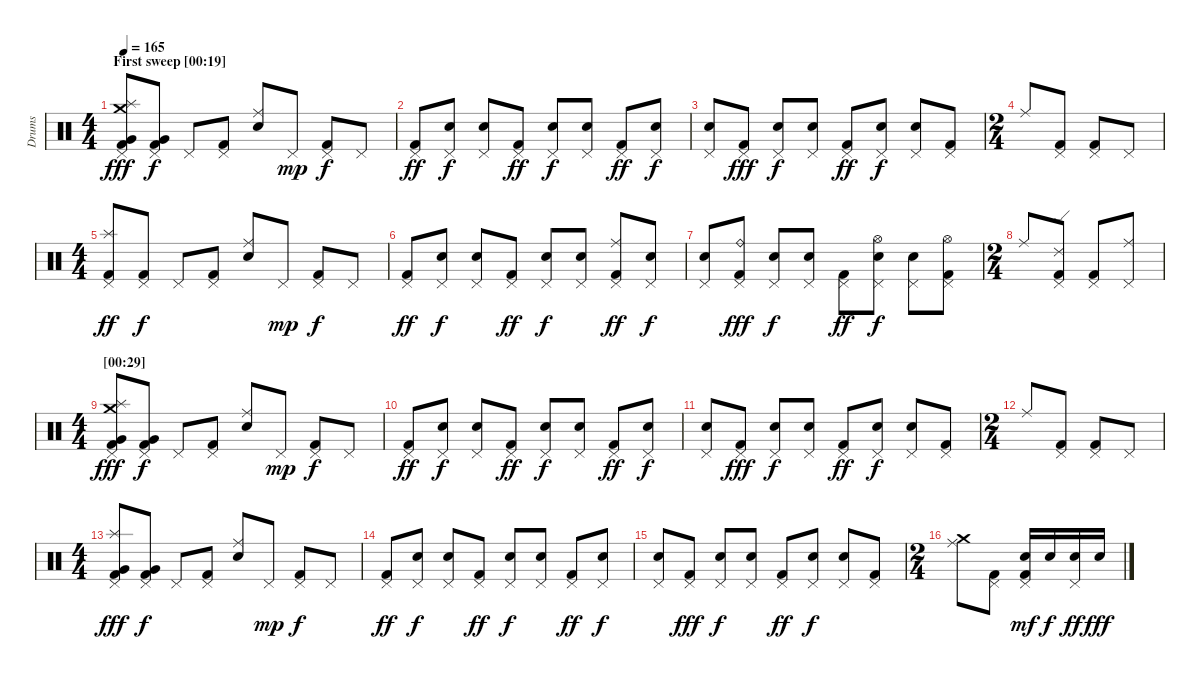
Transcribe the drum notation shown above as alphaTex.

\track ("Drums" "Drums") {instrument percussion}
\staff {score}
\articulation defaults
\ts (4 4)
\section ("" "First sweep [00:19]")
\tempo 165
\clef neutral
\ks c
("Pedal Hi-Hat (hit)" "Splash (hit)" "Crash medium (hit)" "Very Low Tom (hit)" "Kick (hit) 2").8{dy fff} ("Pedal Hi-Hat (hit)" "Very Low Tom (hit)" "Kick (hit) 2").8{dy f} "Pedal Hi-Hat (hit)".8 ("Pedal Hi-Hat (hit)" "Kick (hit) 2").8 ("Ride (middle)" "Electric Snare (hit)").8 "Pedal Hi-Hat (hit)".8{dy mp} ("Pedal Hi-Hat (hit)" "Kick (hit) 2").8{dy f} "Pedal Hi-Hat (hit)".8 |
("Pedal Hi-Hat (hit)" "Kick (hit) 2").8{dy ff} ("Pedal Hi-Hat (hit)" "Electric Snare (hit)").8{dy f} ("Pedal Hi-Hat (hit)" "Electric Snare (hit)").8 ("Pedal Hi-Hat (hit)" "Kick (hit) 2").8{dy ff} ("Pedal Hi-Hat (hit)" "Electric Snare (hit)").8{dy f} ("Pedal Hi-Hat (hit)" "Electric Snare (hit)").8 ("Pedal Hi-Hat (hit)" "Kick (hit) 2").8{dy ff} ("Pedal Hi-Hat (hit)" "Electric Snare (hit)").8{dy f} |
("Pedal Hi-Hat (hit)" "Electric Snare (hit)").8 ("Pedal Hi-Hat (hit)" "Kick (hit) 2").8{dy fff} ("Pedal Hi-Hat (hit)" "Electric Snare (hit)").8{dy f} ("Pedal Hi-Hat (hit)" "Electric Snare (hit)").8 ("Pedal Hi-Hat (hit)" "Kick (hit) 2").8{dy ff} ("Pedal Hi-Hat (hit)" "Electric Snare (hit)").8{dy f} ("Pedal Hi-Hat (hit)" "Electric Snare (hit)").8 ("Pedal Hi-Hat (hit)" "Kick (hit) 2").8 |
\ts (2 4)
"Ride (middle)".8 ("Pedal Hi-Hat (hit)" "Kick (hit) 2").8 ("Pedal Hi-Hat (hit)" "Kick (hit) 2").8 "Pedal Hi-Hat (hit)".8 |
\ts (4 4)
("Pedal Hi-Hat (hit)" "Splash (hit)" "Kick (hit) 2").8{dy ff} ("Pedal Hi-Hat (hit)" "Kick (hit) 2").8{dy f} "Pedal Hi-Hat (hit)".8 ("Pedal Hi-Hat (hit)" "Kick (hit) 2").8 ("Ride (middle)" "Electric Snare (hit)").8 "Pedal Hi-Hat (hit)".8{dy mp} ("Pedal Hi-Hat (hit)" "Kick (hit) 2").8{dy f} "Pedal Hi-Hat (hit)".8 |
("Pedal Hi-Hat (hit)" "Kick (hit) 2").8{dy ff} ("Pedal Hi-Hat (hit)" "Electric Snare (hit)").8{dy f} ("Pedal Hi-Hat (hit)" "Electric Snare (hit)").8 ("Pedal Hi-Hat (hit)" "Kick (hit) 2").8{dy ff} ("Pedal Hi-Hat (hit)" "Electric Snare (hit)").8{dy f} ("Pedal Hi-Hat (hit)" "Electric Snare (hit)").8 ("Pedal Hi-Hat (hit)" "Ride (middle)" "Kick (hit) 2").8{dy ff} ("Pedal Hi-Hat (hit)" "Electric Snare (hit)").8{dy f} |
("Pedal Hi-Hat (hit)" "Electric Snare (hit)").8 ("Pedal Hi-Hat (hit)" "Ride (bell)" "Kick (hit) 2").8{dy fff} ("Pedal Hi-Hat (hit)" "Electric Snare (hit)").8{dy f} ("Pedal Hi-Hat (hit)" "Electric Snare (hit)").8 ("Pedal Hi-Hat (hit)" "Kick (hit) 2").8{dy ff} ("Pedal Hi-Hat (hit)" "Hi-Hat (open)" "Electric Snare (hit)").8{dy f} ("Pedal Hi-Hat (hit)" "Electric Snare (hit)").8 ("Pedal Hi-Hat (hit)" "Hi-Hat (open)" "Kick (hit) 2").8 |
\ts (2 4)
"Ride (middle)".8 ("Pedal Hi-Hat (hit)" "Ride (edge) 2" "Kick (hit) 2").8 ("Pedal Hi-Hat (hit)" "Kick (hit) 2").8 ("Pedal Hi-Hat (hit)" "Ride (middle)").8 |
\ts (4 4)
\section ("" "[00:29]")
("Pedal Hi-Hat (hit)" "Splash (hit)" "Crash medium (hit)" "Very Low Tom (hit)" "Kick (hit) 2").8{dy fff} ("Pedal Hi-Hat (hit)" "Very Low Tom (hit)" "Kick (hit) 2").8{dy f} "Pedal Hi-Hat (hit)".8 ("Pedal Hi-Hat (hit)" "Kick (hit) 2").8 ("Ride (middle)" "Electric Snare (hit)").8 "Pedal Hi-Hat (hit)".8{dy mp} ("Pedal Hi-Hat (hit)" "Kick (hit) 2").8{dy f} "Pedal Hi-Hat (hit)".8 |
("Pedal Hi-Hat (hit)" "Kick (hit) 2").8{dy ff} ("Pedal Hi-Hat (hit)" "Electric Snare (hit)").8{dy f} ("Pedal Hi-Hat (hit)" "Electric Snare (hit)").8 ("Pedal Hi-Hat (hit)" "Kick (hit) 2").8{dy ff} ("Pedal Hi-Hat (hit)" "Electric Snare (hit)").8{dy f} ("Pedal Hi-Hat (hit)" "Electric Snare (hit)").8 ("Pedal Hi-Hat (hit)" "Kick (hit) 2").8{dy ff} ("Pedal Hi-Hat (hit)" "Electric Snare (hit)").8{dy f} |
("Pedal Hi-Hat (hit)" "Electric Snare (hit)").8 ("Pedal Hi-Hat (hit)" "Kick (hit) 2").8{dy fff} ("Pedal Hi-Hat (hit)" "Electric Snare (hit)").8{dy f} ("Pedal Hi-Hat (hit)" "Electric Snare (hit)").8 ("Pedal Hi-Hat (hit)" "Kick (hit) 2").8{dy ff} ("Pedal Hi-Hat (hit)" "Electric Snare (hit)").8{dy f} ("Pedal Hi-Hat (hit)" "Electric Snare (hit)").8 ("Pedal Hi-Hat (hit)" "Kick (hit) 2").8 |
\ts (2 4)
"Ride (middle)".8 ("Pedal Hi-Hat (hit)" "Kick (hit) 2").8 ("Pedal Hi-Hat (hit)" "Kick (hit) 2").8 "Pedal Hi-Hat (hit)".8 |
\ts (4 4)
("Pedal Hi-Hat (hit)" "Splash (hit)" "Very Low Tom (hit)" "Kick (hit) 2").8{dy fff} ("Pedal Hi-Hat (hit)" "Very Low Tom (hit)" "Kick (hit) 2").8{dy f} "Pedal Hi-Hat (hit)".8 ("Pedal Hi-Hat (hit)" "Kick (hit) 2").8 ("Ride (middle)" "Electric Snare (hit)").8 "Pedal Hi-Hat (hit)".8{dy mp} ("Pedal Hi-Hat (hit)" "Kick (hit) 2").8{dy f} "Pedal Hi-Hat (hit)".8 |
("Pedal Hi-Hat (hit)" "Kick (hit) 2").8{dy ff} ("Pedal Hi-Hat (hit)" "Electric Snare (hit)").8{dy f} ("Pedal Hi-Hat (hit)" "Electric Snare (hit)").8 ("Pedal Hi-Hat (hit)" "Kick (hit) 2").8{dy ff} ("Pedal Hi-Hat (hit)" "Electric Snare (hit)").8{dy f} ("Pedal Hi-Hat (hit)" "Electric Snare (hit)").8 ("Pedal Hi-Hat (hit)" "Kick (hit) 2").8{dy ff} ("Pedal Hi-Hat (hit)" "Electric Snare (hit)").8{dy f} |
("Pedal Hi-Hat (hit)" "Electric Snare (hit)").8 ("Pedal Hi-Hat (hit)" "Kick (hit) 2").8{dy fff} ("Pedal Hi-Hat (hit)" "Electric Snare (hit)").8{dy f} ("Pedal Hi-Hat (hit)" "Electric Snare (hit)").8 ("Pedal Hi-Hat (hit)" "Kick (hit) 2").8{dy ff} ("Pedal Hi-Hat (hit)" "Electric Snare (hit)").8{dy f} ("Pedal Hi-Hat (hit)" "Electric Snare (hit)").8 ("Pedal Hi-Hat (hit)" "Kick (hit) 2").8 |
\ts (2 4)
("Ride (middle)" "Crash medium (hit)").8 ("Pedal Hi-Hat (hit)" "Kick (hit) 2").8 ("Pedal Hi-Hat (hit)" "Electric Snare (hit)" "Kick (hit) 2").16{dy mf} "Electric Snare (hit)".16{dy f} ("Pedal Hi-Hat (hit)" "Electric Snare (hit)").16{dy ff} "Electric Snare (hit)".16{dy fff}
